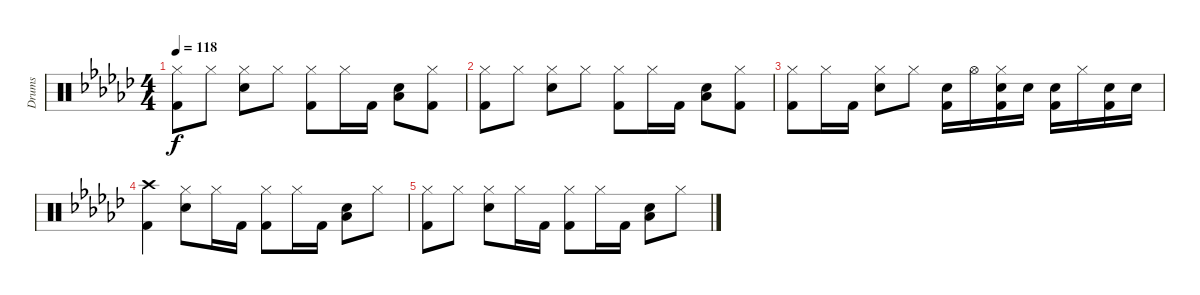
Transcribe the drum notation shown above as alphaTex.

\track ("Drums" "Drums") {instrument percussion}
\staff {score}
\articulation defaults
\ts (4 4)
\tempo 118
\clef neutral
\ks ebminor
("Hi-Hat (closed)" "Kick (hit) 2").8{dy f} "Hi-Hat (closed)".8 ("Hi-Hat (closed)" "Electric Snare (hit)").8 "Hi-Hat (closed)".8 ("Hi-Hat (closed)" "Kick (hit) 2").8 "Hi-Hat (closed)".16 "Kick (hit) 2".16 ("Electric Snare (hit)" "Low Tom (hit)").8 ("Hi-Hat (closed)" "Kick (hit) 2").8 |
("Hi-Hat (closed)" "Kick (hit) 2").8 "Hi-Hat (closed)".8 ("Hi-Hat (closed)" "Electric Snare (hit)").8 "Hi-Hat (closed)".8 ("Hi-Hat (closed)" "Kick (hit) 2").8 "Hi-Hat (closed)".16 "Kick (hit) 2".16 ("Electric Snare (hit)" "Low Tom (hit)").8 ("Hi-Hat (closed)" "Kick (hit) 2").8 |
("Hi-Hat (closed)" "Kick (hit) 2").8 "Hi-Hat (closed)".16 "Kick (hit) 2".16 ("Hi-Hat (closed)" "Electric Snare (hit)").8 "Hi-Hat (closed)".8 ("Electric Snare (hit)" "Kick (hit) 2").16 "Hi-Hat (open)".16 ("Hi-Hat (closed)" "Electric Snare (hit)" "Kick (hit) 2").16 "Electric Snare (hit)".16 ("Electric Snare (hit)" "Kick (hit) 2").16 "Hi-Hat (closed)".16 ("Electric Snare (hit)" "Kick (hit) 2").16 "Electric Snare (hit)".16 |
("Crash high (hit)" "Kick (hit) 2").4 ("Hi-Hat (closed)" "Electric Snare (hit)").8 "Hi-Hat (closed)".16 "Kick (hit) 2".16 ("Hi-Hat (closed)" "Kick (hit) 2").8 "Hi-Hat (closed)".16 "Kick (hit) 2".16 ("Electric Snare (hit)" "Low Tom (hit)").8 "Hi-Hat (closed)".8 |
("Hi-Hat (closed)" "Kick (hit) 2").8 "Hi-Hat (closed)".8 ("Hi-Hat (closed)" "Electric Snare (hit)").8 "Hi-Hat (closed)".16 "Kick (hit) 2".16 ("Hi-Hat (closed)" "Kick (hit) 2").8 "Hi-Hat (closed)".16 "Kick (hit) 2".16 ("Electric Snare (hit)" "Low Tom (hit)").8 "Hi-Hat (closed)".8
